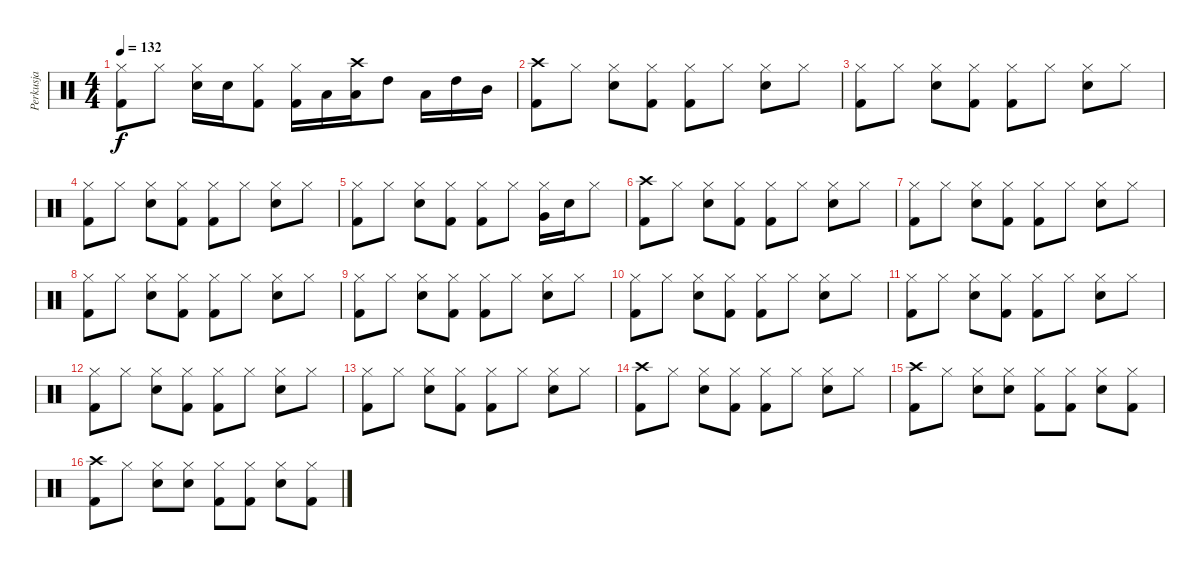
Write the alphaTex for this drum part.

\track ("Perkusja" "Perkusja") {instrument percussion}
\staff {score}
\articulation defaults
\ts (4 4)
\tempo 132
\clef neutral
\ks c
("Kick (hit) 2" "Hi-Hat (closed)").8{dy f} "Hi-Hat (closed)".8 ("Snare (hit) 2" "Hi-Hat (closed)").16 "Snare (hit) 2".16 ("Kick (hit) 2" "Hi-Hat (closed)").8 ("Kick (hit) 2" "Hi-Hat (closed)").16 "Low Tom (hit)".16 ("Low Tom (hit)" "Crash high (hit)").16 "High Tom (hit)".8 "Low Tom (hit)".16 "High Tom (hit)".16 "Mid Tom (hit)".16 |
("Kick (hit) 2" "Crash high (hit)").8 "Hi-Hat (closed)".8 ("Snare (hit) 2" "Hi-Hat (closed)").8 ("Kick (hit) 2" "Hi-Hat (closed)").8 ("Kick (hit) 2" "Hi-Hat (closed)").8 "Hi-Hat (closed)".8 ("Snare (hit) 2" "Hi-Hat (closed)").8 "Hi-Hat (closed)".8 |
("Kick (hit) 2" "Hi-Hat (closed)").8 "Hi-Hat (closed)".8 ("Snare (hit) 2" "Hi-Hat (closed)").8 ("Kick (hit) 2" "Hi-Hat (closed)").8 ("Kick (hit) 2" "Hi-Hat (closed)").8 "Hi-Hat (closed)".8 ("Snare (hit) 2" "Hi-Hat (closed)").8 "Hi-Hat (closed)".8 |
("Kick (hit) 2" "Hi-Hat (closed)").8 "Hi-Hat (closed)".8 ("Snare (hit) 2" "Hi-Hat (closed)").8 ("Kick (hit) 2" "Hi-Hat (closed)").8 ("Kick (hit) 2" "Hi-Hat (closed)").8 "Hi-Hat (closed)".8 ("Snare (hit) 2" "Hi-Hat (closed)").8 "Hi-Hat (closed)".8 |
("Kick (hit) 2" "Hi-Hat (closed)").8 "Hi-Hat (closed)".8 ("Snare (hit) 2" "Hi-Hat (closed)").8 ("Kick (hit) 2" "Hi-Hat (closed)").8 ("Kick (hit) 2" "Hi-Hat (closed)").8 "Hi-Hat (closed)".8 ("Very Low Tom (hit)" "Hi-Hat (closed)").16 "Snare (hit) 2".16 "Hi-Hat (closed)".8 |
("Kick (hit) 2" "Crash high (hit)").8 "Hi-Hat (closed)".8 ("Snare (hit) 2" "Hi-Hat (closed)").8 ("Kick (hit) 2" "Hi-Hat (closed)").8 ("Kick (hit) 2" "Hi-Hat (closed)").8 "Hi-Hat (closed)".8 ("Snare (hit) 2" "Hi-Hat (closed)").8 "Hi-Hat (closed)".8 |
("Kick (hit) 2" "Hi-Hat (closed)").8 "Hi-Hat (closed)".8 ("Snare (hit) 2" "Hi-Hat (closed)").8 ("Kick (hit) 2" "Hi-Hat (closed)").8 ("Kick (hit) 2" "Hi-Hat (closed)").8 "Hi-Hat (closed)".8 ("Snare (hit) 2" "Hi-Hat (closed)").8 "Hi-Hat (closed)".8 |
("Kick (hit) 2" "Hi-Hat (closed)").8 "Hi-Hat (closed)".8 ("Snare (hit) 2" "Hi-Hat (closed)").8 ("Kick (hit) 2" "Hi-Hat (closed)").8 ("Kick (hit) 2" "Hi-Hat (closed)").8 "Hi-Hat (closed)".8 ("Snare (hit) 2" "Hi-Hat (closed)").8 "Hi-Hat (closed)".8 |
("Kick (hit) 2" "Hi-Hat (closed)").8 "Hi-Hat (closed)".8 ("Snare (hit) 2" "Hi-Hat (closed)").8 ("Kick (hit) 2" "Hi-Hat (closed)").8 ("Kick (hit) 2" "Hi-Hat (closed)").8 "Hi-Hat (closed)".8 ("Snare (hit) 2" "Hi-Hat (closed)").8 "Hi-Hat (closed)".8 |
("Kick (hit) 2" "Hi-Hat (closed)").8 "Hi-Hat (closed)".8 ("Snare (hit) 2" "Hi-Hat (closed)").8 ("Kick (hit) 2" "Hi-Hat (closed)").8 ("Kick (hit) 2" "Hi-Hat (closed)").8 "Hi-Hat (closed)".8 ("Snare (hit) 2" "Hi-Hat (closed)").8 "Hi-Hat (closed)".8 |
("Kick (hit) 2" "Hi-Hat (closed)").8 "Hi-Hat (closed)".8 ("Snare (hit) 2" "Hi-Hat (closed)").8 ("Kick (hit) 2" "Hi-Hat (closed)").8 ("Kick (hit) 2" "Hi-Hat (closed)").8 "Hi-Hat (closed)".8 ("Snare (hit) 2" "Hi-Hat (closed)").8 "Hi-Hat (closed)".8 |
("Kick (hit) 2" "Hi-Hat (closed)").8 "Hi-Hat (closed)".8 ("Snare (hit) 2" "Hi-Hat (closed)").8 ("Kick (hit) 2" "Hi-Hat (closed)").8 ("Kick (hit) 2" "Hi-Hat (closed)").8 "Hi-Hat (closed)".8 ("Snare (hit) 2" "Hi-Hat (closed)").8 "Hi-Hat (closed)".8 |
("Kick (hit) 2" "Hi-Hat (closed)").8 "Hi-Hat (closed)".8 ("Snare (hit) 2" "Hi-Hat (closed)").8 ("Kick (hit) 2" "Hi-Hat (closed)").8 ("Kick (hit) 2" "Hi-Hat (closed)").8 "Hi-Hat (closed)".8 ("Snare (hit) 2" "Hi-Hat (closed)").8 "Hi-Hat (closed)".8 |
("Kick (hit) 2" "Crash high (hit)").8 "Hi-Hat (closed)".8 ("Snare (hit) 2" "Hi-Hat (closed)").8 ("Kick (hit) 2" "Hi-Hat (closed)").8 ("Kick (hit) 2" "Hi-Hat (closed)").8 "Hi-Hat (closed)".8 ("Snare (hit) 2" "Hi-Hat (closed)").8 "Hi-Hat (closed)".8 |
("Kick (hit) 2" "Crash high (hit)").8 "Hi-Hat (closed)".8 ("Snare (hit) 2" "Hi-Hat (closed)").8 ("Snare (hit) 2" "Hi-Hat (closed)").8 ("Kick (hit) 2" "Hi-Hat (closed)").8 ("Kick (hit) 2" "Hi-Hat (closed)").8 ("Snare (hit) 2" "Hi-Hat (closed)").8 ("Kick (hit) 2" "Hi-Hat (closed)").8 |
("Kick (hit) 2" "Crash high (hit)").8 "Hi-Hat (closed)".8 ("Snare (hit) 2" "Hi-Hat (closed)").8 ("Snare (hit) 2" "Hi-Hat (closed)").8 ("Kick (hit) 2" "Hi-Hat (closed)").8 ("Kick (hit) 2" "Hi-Hat (closed)").8 ("Snare (hit) 2" "Hi-Hat (closed)").8 ("Kick (hit) 2" "Hi-Hat (closed)").8
